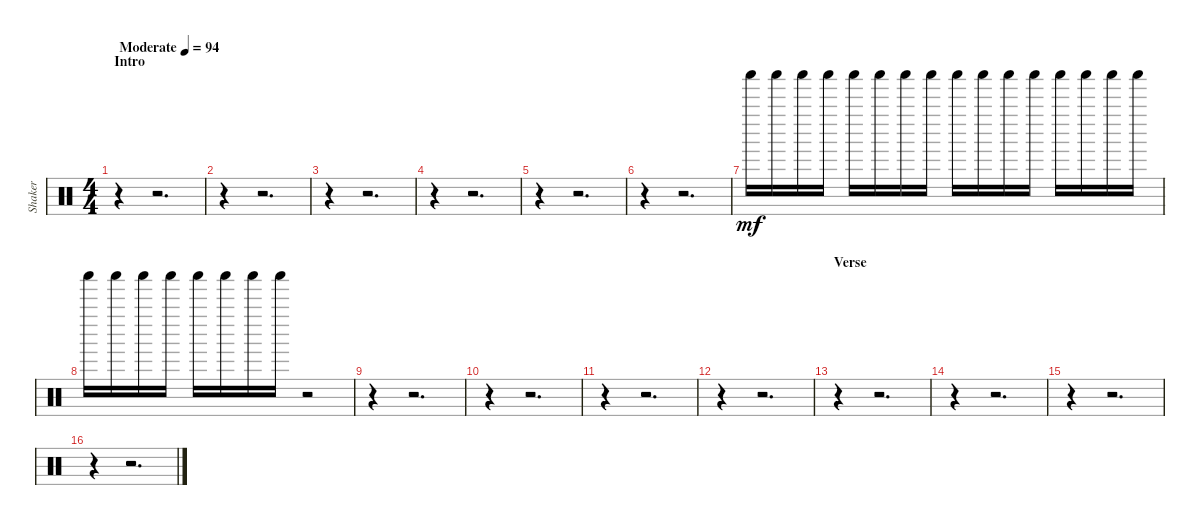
\track ("Shaker" "Shaker") {instrument percussion}
\staff {score}
\articulation defaults
\ts (4 4)
\section ("" "Intro")
\tempo (94 "Moderate")
\clef neutral
\ks c
r.4{dy mf} r.2{d} |
r.4 r.2{d} |
r.4 r.2{d} |
r.4 r.2{d} |
r.4 r.2{d} |
r.4 r.2{d} |
"Shaker (hit)".16 "Shaker (hit)".16 "Shaker (hit)".16 "Shaker (hit)".16 "Shaker (hit)".16 "Shaker (hit)".16 "Shaker (hit)".16 "Shaker (hit)".16 "Shaker (hit)".16 "Shaker (hit)".16 "Shaker (hit)".16 "Shaker (hit)".16 "Shaker (hit)".16 "Shaker (hit)".16 "Shaker (hit)".16 "Shaker (hit)".16 |
"Shaker (hit)".16 "Shaker (hit)".16 "Shaker (hit)".16 "Shaker (hit)".16 "Shaker (hit)".16 "Shaker (hit)".16 "Shaker (hit)".16 "Shaker (hit)".16 r.2 |
r.4 r.2{d} |
r.4 r.2{d} |
r.4 r.2{d} |
r.4 r.2{d} |
\section ("" "Verse")
r.4 r.2{d} |
r.4 r.2{d} |
r.4 r.2{d} |
r.4 r.2{d}
